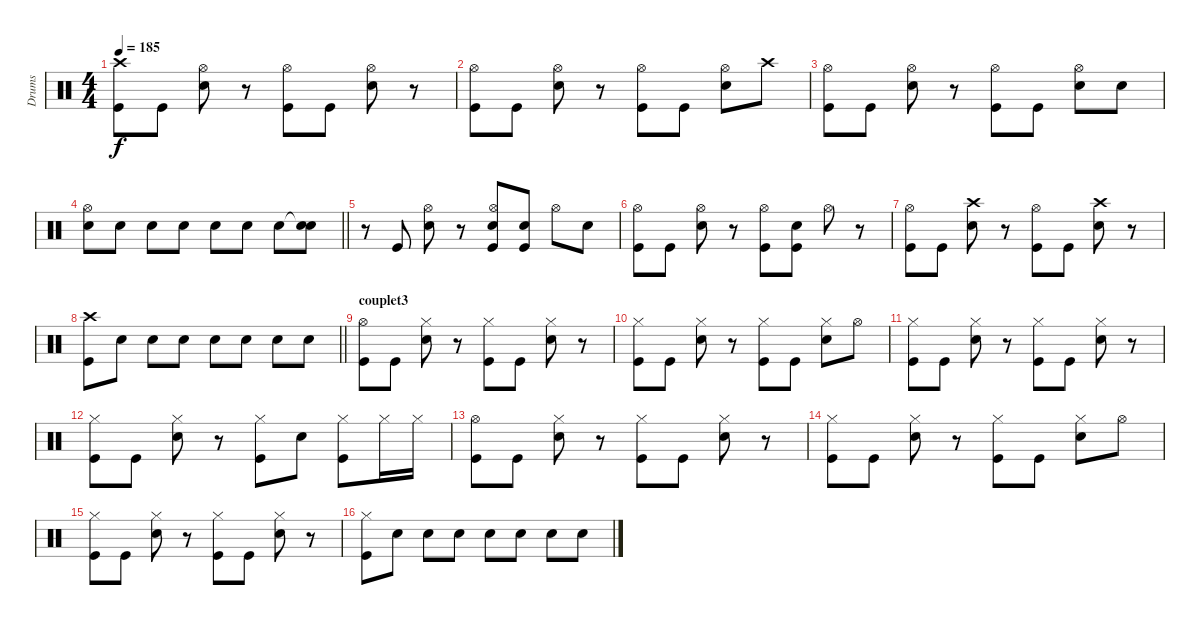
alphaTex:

\track ("Drums" "Drums") {instrument percussion}
\staff {score}
\articulation defaults
\ts (4 4)
\tempo 185
\clef neutral
\ks c
("Crash high (hit)" "Kick (hit)").8{dy f} "Kick (hit)".8 ("Hi-Hat (open)" "Electric Snare (hit)").8 r.8 ("Hi-Hat (open)" "Kick (hit)").8 "Kick (hit)".8 ("Hi-Hat (open)" "Electric Snare (hit)").8 r.8 |
("Hi-Hat (open)" "Kick (hit)").8 "Kick (hit)".8 ("Hi-Hat (open)" "Electric Snare (hit)").8 r.8 ("Hi-Hat (open)" "Kick (hit)").8 "Kick (hit)".8 ("Hi-Hat (open)" "Electric Snare (hit)").8 "Crash high (hit)".8 |
("Hi-Hat (open)" "Kick (hit)").8 "Kick (hit)".8 ("Hi-Hat (open)" "Electric Snare (hit)").8 r.8 ("Hi-Hat (open)" "Kick (hit)").8 "Kick (hit)".8 ("Hi-Hat (open)" "Electric Snare (hit)").8 "Electric Snare (hit)".8 |
\barLineRight lightlight
("Hi-Hat (open)" "Electric Snare (hit)").8 "Electric Snare (hit)".8 "Electric Snare (hit)".8 "Electric Snare (hit)".8 "Electric Snare (hit)".8 "Electric Snare (hit)".8 "Electric Snare (hit)".8 ("Snare (hit)"{t} "Electric Snare (hit)").8 |
r.8 "Kick (hit)".8 ("Hi-Hat (open)" "Electric Snare (hit)").8 r.8 ("Hi-Hat (open)" "Electric Snare (hit)" "Kick (hit)").8 ("Electric Snare (hit)" "Kick (hit)").8 "Hi-Hat (open)".8 "Electric Snare (hit)".8 |
("Hi-Hat (open)" "Kick (hit)").8 "Kick (hit)".8 ("Hi-Hat (open)" "Electric Snare (hit)").8 r.8 ("Hi-Hat (open)" "Kick (hit)").8 ("Electric Snare (hit)" "Kick (hit)").8 "Hi-Hat (open)".8 r.8 |
("Hi-Hat (open)" "Kick (hit)").8 "Kick (hit)".8 ("Crash high (hit)" "Electric Snare (hit)").8 r.8 ("Hi-Hat (open)" "Kick (hit)").8 "Kick (hit)".8 ("Crash high (hit)" "Electric Snare (hit)").8 r.8 |
\barLineRight lightlight
("Crash high (hit)" "Kick (hit)").8 "Electric Snare (hit)".8 "Electric Snare (hit)".8 "Electric Snare (hit)".8 "Electric Snare (hit)".8 "Electric Snare (hit)".8 "Electric Snare (hit)".8 "Electric Snare (hit)".8 |
\section ("" "couplet3")
("Hi-Hat (open)" "Kick (hit)").8 "Kick (hit)".8 ("Hi-Hat (closed)" "Electric Snare (hit)").8 r.8 ("Hi-Hat (closed)" "Kick (hit)").8 "Kick (hit)".8 ("Hi-Hat (closed)" "Electric Snare (hit)").8 r.8 |
("Hi-Hat (closed)" "Kick (hit)").8 "Kick (hit)".8 ("Hi-Hat (closed)" "Electric Snare (hit)").8 r.8 ("Hi-Hat (closed)" "Kick (hit)").8 "Kick (hit)".8 ("Hi-Hat (closed)" "Electric Snare (hit)").8 "Hi-Hat (open)".8 |
("Hi-Hat (closed)" "Kick (hit)").8 "Kick (hit)".8 ("Hi-Hat (closed)" "Electric Snare (hit)").8 r.8 ("Hi-Hat (closed)" "Kick (hit)").8 "Kick (hit)".8 ("Hi-Hat (closed)" "Electric Snare (hit)").8 r.8 |
("Hi-Hat (closed)" "Kick (hit)").8 "Kick (hit)".8 ("Hi-Hat (closed)" "Electric Snare (hit)").8 r.8 ("Hi-Hat (closed)" "Kick (hit)").8 "Electric Snare (hit)".8 ("Hi-Hat (closed)" "Kick (hit)").8 "Hi-Hat (closed)".16 "Hi-Hat (closed)".16 |
("Hi-Hat (open)" "Kick (hit)").8 "Kick (hit)".8 ("Hi-Hat (closed)" "Electric Snare (hit)").8 r.8 ("Hi-Hat (closed)" "Kick (hit)").8 "Kick (hit)".8 ("Hi-Hat (closed)" "Electric Snare (hit)").8 r.8 |
("Hi-Hat (closed)" "Kick (hit)").8 "Kick (hit)".8 ("Hi-Hat (closed)" "Electric Snare (hit)").8 r.8 ("Hi-Hat (closed)" "Kick (hit)").8 "Kick (hit)".8 ("Hi-Hat (closed)" "Electric Snare (hit)").8 "Hi-Hat (open)".8 |
("Hi-Hat (closed)" "Kick (hit)").8 "Kick (hit)".8 ("Hi-Hat (closed)" "Electric Snare (hit)").8 r.8 ("Hi-Hat (closed)" "Kick (hit)").8 "Kick (hit)".8 ("Hi-Hat (closed)" "Electric Snare (hit)").8 r.8 |
("Hi-Hat (closed)" "Kick (hit)").8 "Electric Snare (hit)".8 "Electric Snare (hit)".8 "Electric Snare (hit)".8 "Electric Snare (hit)".8 "Electric Snare (hit)".8 "Electric Snare (hit)".8 "Electric Snare (hit)".8
